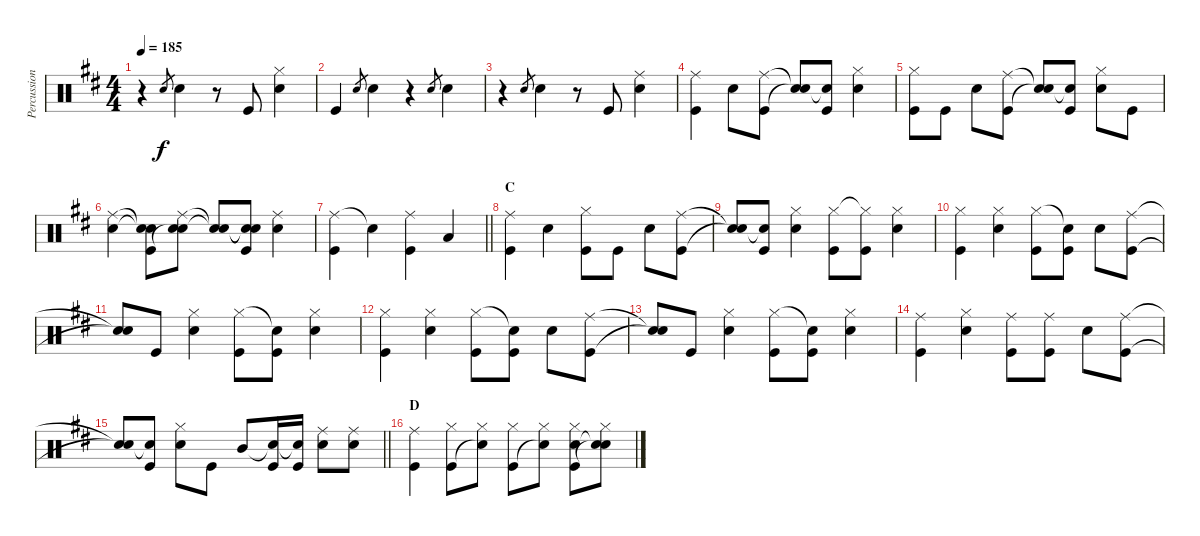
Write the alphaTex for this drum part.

\track ("Percussion" "Percussion") {instrument percussion}
\staff {score}
\articulation defaults
\ts (4 4)
\tempo 185
\clef neutral
\ks d
r.4{dy f} "Snare (hit) 2".8{gr} "Snare (hit) 2".4 r.8 "Kick (hit)".8 ("Hi-Hat (closed)" "Snare (hit) 2").4 |
"Kick (hit)".4 "Snare (hit) 2".8{gr} "Snare (hit) 2".4 r.4 "Snare (hit) 2".8{gr} "Snare (hit) 2".4 |
r.4 "Snare (hit) 2".8{gr} "Snare (hit) 2".4 r.8 "Kick (hit)".8 ("Ride (middle)" "Snare (hit) 2").4 |
("Ride (middle)" "Kick (hit)").4 "Snare (hit) 2".8 ("Ride (middle)" "Kick (hit)").8 ("Snare (hit)"{t} "Snare (hit)"{t}).8 ("Snare (hit)"{t} "Kick (hit)").8 ("Hi-Hat (closed)" "Snare (hit) 2").4 |
("Hi-Hat (closed)" "Kick (hit)").8 "Kick (hit)".8 "Snare (hit) 2".8 ("Ride (middle)" "Kick (hit)").8 ("Snare (hit)"{t} "Snare (hit)"{t}).8 ("Snare (hit)"{t} "Kick (hit)").8 ("Hi-Hat (closed)" "Snare (hit) 2").8 "Kick (hit)".8 |
("Ride (middle)" "Snare (hit) 2").4 ("Snare (hit)"{t} "Snare (hit)"{t} "Kick (hit)").8 ("Ride (middle)" "Snare (hit) 2" "Snare (hit)"{t}).8 ("Snare (hit)"{t} "Snare (hit)"{t}).8 ("Snare (hit)"{t} "Snare (hit)"{t} "Kick (hit)").8 ("Ride (middle)" "Snare (hit) 2").4 |
\barLineRight lightlight
("Ride (middle)" "Kick (hit)").4 "Snare (hit)"{t}.4 ("Ride (middle)" "Kick (hit)").4 "Low Tom (hit)".4 |
\section ("" "C")
("Ride (middle)" "Kick (hit)").4 "Snare (hit) 2".4 ("Hi-Hat (closed)" "Kick (hit)").8 "Kick (hit)".8 "Snare (hit) 2".8 ("Ride (middle)" "Kick (hit)").8 |
("Snare (hit)"{t} "Snare (hit)"{t}).8 ("Snare (hit)"{t} "Kick (hit)").8 ("Hi-Hat (closed)" "Snare (hit) 2").4 ("Hi-Hat (closed)" "Kick (hit)").8 ("Hi-Hat (closed)"{t} "Kick (hit)").8 ("Hi-Hat (closed)" "Snare (hit) 2").4 |
("Hi-Hat (closed)" "Kick (hit)").4 ("Hi-Hat (closed)" "Snare (hit) 2").4 ("Hi-Hat (closed)" "Kick (hit)").8 ("Snare (hit)"{t} "Kick (hit)").8 "Snare (hit) 2".8 ("Ride (middle)" "Kick (hit)").8 |
("Snare (hit)"{t} "Snare (hit)"{t}).8 "Kick (hit)".8 ("Hi-Hat (closed)" "Snare (hit) 2").4 ("Hi-Hat (closed)" "Kick (hit)").8 ("Snare (hit)"{t} "Kick (hit)").8 ("Hi-Hat (closed)" "Snare (hit) 2").4 |
("Hi-Hat (closed)" "Kick (hit)").4 ("Hi-Hat (closed)" "Snare (hit) 2").4 ("Hi-Hat (closed)" "Kick (hit)").8 ("Snare (hit)"{t} "Kick (hit)").8 "Snare (hit) 2".8 ("Ride (middle)" "Kick (hit)").8 |
("Snare (hit)"{t} "Snare (hit)"{t}).8 "Kick (hit)".8 ("Hi-Hat (closed)" "Snare (hit) 2").4 ("Hi-Hat (closed)" "Kick (hit)").8 ("Snare (hit)"{t} "Kick (hit)").8 ("Hi-Hat (closed)" "Snare (hit) 2").4 |
("Ride (middle)" "Kick (hit)").4 ("Hi-Hat (closed)" "Snare (hit) 2").4 ("Ride (middle)" "Kick (hit)").8 ("Ride (middle)" "Kick (hit)").8 "Snare (hit) 2".8 ("Ride (middle)" "Kick (hit)").8 |
\barLineRight lightlight
("Snare (hit)"{t} "Snare (hit)"{t}).8 ("Snare (hit)"{t} "Kick (hit)").8 ("Hi-Hat (closed)" "Snare (hit) 2").8 "Kick (hit)".8 "Mid Tom (hit)".8 ("Snare (hit)"{t} "Kick (hit)").16 ("Snare (hit)"{t} "Kick (hit)").16 ("Ride (middle)" "Snare (hit) 2").8 ("Ride (middle)" "Snare (hit) 2").8 |
\section ("" "D")
("Ride (middle)" "Kick (hit)").4 ("Hi-Hat (closed)" "Kick (hit)").8 ("Hi-Hat (closed)" "Snare (hit)"{t}).8 ("Hi-Hat (closed)" "Kick (hit)").8 ("Hi-Hat (closed)" "Snare (hit)"{t}).8 ("Hi-Hat (closed)" "Snare (hit) 2" "Kick (hit)").8 ("Hi-Hat (closed)" "Snare (hit)"{t} "Snare (hit)"{t}).8
